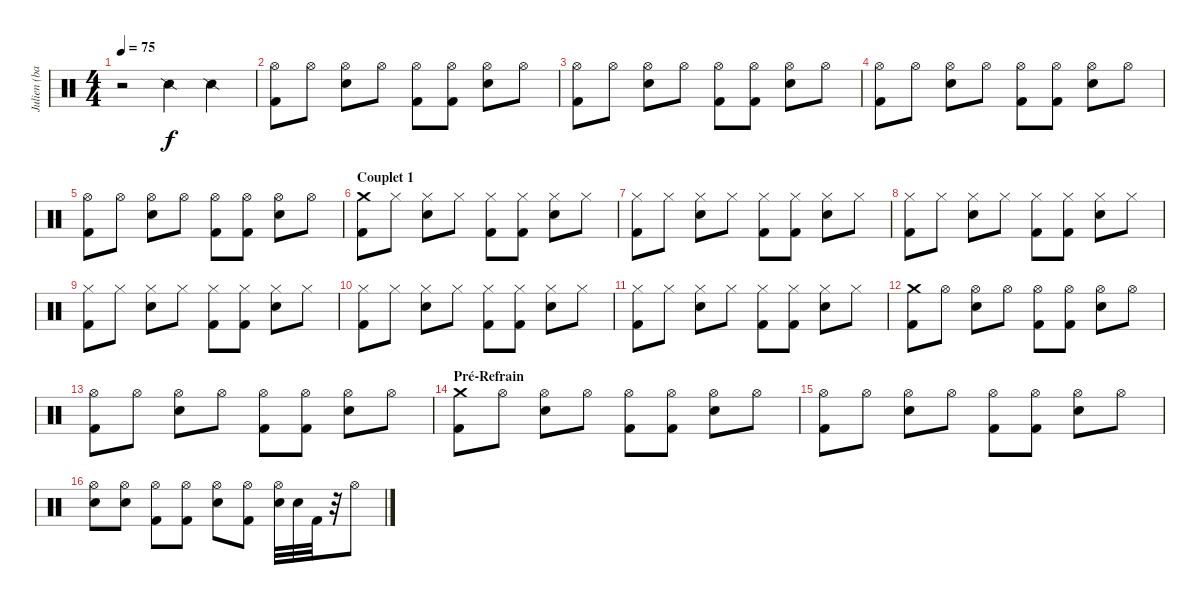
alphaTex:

\track ("Julien (batterie)" "Julien (ba") {instrument percussion}
\staff {score}
\articulation defaults
\ts (4 4)
\tempo 75
\clef neutral
\ks c
r.2{dy f} "Snare (side stick) 2".4 "Snare (side stick) 2".4 |
("Hi-Hat (open)" "Kick (hit) 2").8 "Hi-Hat (open)".8 ("Hi-Hat (open)" "Electric Snare (hit)").8 "Hi-Hat (open)".8 ("Hi-Hat (open)" "Kick (hit) 2").8 ("Hi-Hat (open)" "Kick (hit) 2").8 ("Hi-Hat (open)" "Electric Snare (hit)").8 "Hi-Hat (open)".8 |
("Hi-Hat (open)" "Kick (hit) 2").8 "Hi-Hat (open)".8 ("Hi-Hat (open)" "Electric Snare (hit)").8 "Hi-Hat (open)".8 ("Hi-Hat (open)" "Kick (hit) 2").8 ("Hi-Hat (open)" "Kick (hit) 2").8 ("Hi-Hat (open)" "Electric Snare (hit)").8 "Hi-Hat (open)".8 |
("Hi-Hat (open)" "Kick (hit) 2").8 "Hi-Hat (open)".8 ("Hi-Hat (open)" "Electric Snare (hit)").8 "Hi-Hat (open)".8 ("Hi-Hat (open)" "Kick (hit) 2").8 ("Hi-Hat (open)" "Kick (hit) 2").8 ("Hi-Hat (open)" "Electric Snare (hit)").8 "Hi-Hat (open)".8 |
("Hi-Hat (open)" "Kick (hit) 2").8 "Hi-Hat (open)".8 ("Hi-Hat (open)" "Electric Snare (hit)").8 "Hi-Hat (open)".8 ("Hi-Hat (open)" "Kick (hit) 2").8 ("Hi-Hat (open)" "Kick (hit) 2").8 ("Hi-Hat (open)" "Electric Snare (hit)").8 "Hi-Hat (open)".8 |
\section ("" "Couplet 1")
("Crash medium (hit)" "Kick (hit) 2").8 "Hi-Hat (closed)".8 ("Hi-Hat (closed)" "Electric Snare (hit)").8 "Hi-Hat (closed)".8 ("Hi-Hat (closed)" "Kick (hit) 2").8 ("Hi-Hat (closed)" "Kick (hit) 2").8 ("Hi-Hat (closed)" "Electric Snare (hit)").8 "Hi-Hat (closed)".8 |
("Hi-Hat (closed)" "Kick (hit) 2").8 "Hi-Hat (closed)".8 ("Hi-Hat (closed)" "Electric Snare (hit)").8 "Hi-Hat (closed)".8 ("Hi-Hat (closed)" "Kick (hit) 2").8 ("Hi-Hat (closed)" "Kick (hit) 2").8 ("Hi-Hat (closed)" "Electric Snare (hit)").8 "Hi-Hat (closed)".8 |
("Hi-Hat (closed)" "Kick (hit) 2").8 "Hi-Hat (closed)".8 ("Hi-Hat (closed)" "Electric Snare (hit)").8 "Hi-Hat (closed)".8 ("Hi-Hat (closed)" "Kick (hit) 2").8 ("Hi-Hat (closed)" "Kick (hit) 2").8 ("Hi-Hat (closed)" "Electric Snare (hit)").8 "Hi-Hat (closed)".8 |
("Hi-Hat (closed)" "Kick (hit) 2").8 "Hi-Hat (closed)".8 ("Hi-Hat (closed)" "Electric Snare (hit)").8 "Hi-Hat (closed)".8 ("Hi-Hat (closed)" "Kick (hit) 2").8 ("Hi-Hat (closed)" "Kick (hit) 2").8 ("Hi-Hat (closed)" "Electric Snare (hit)").8 "Hi-Hat (closed)".8 |
("Hi-Hat (closed)" "Kick (hit) 2").8 "Hi-Hat (closed)".8 ("Hi-Hat (closed)" "Electric Snare (hit)").8 "Hi-Hat (closed)".8 ("Hi-Hat (closed)" "Kick (hit) 2").8 ("Hi-Hat (closed)" "Kick (hit) 2").8 ("Hi-Hat (closed)" "Electric Snare (hit)").8 "Hi-Hat (closed)".8 |
("Hi-Hat (closed)" "Kick (hit) 2").8 "Hi-Hat (closed)".8 ("Hi-Hat (closed)" "Electric Snare (hit)").8 "Hi-Hat (closed)".8 ("Hi-Hat (closed)" "Kick (hit) 2").8 ("Hi-Hat (closed)" "Kick (hit) 2").8 ("Hi-Hat (closed)" "Electric Snare (hit)").8 "Hi-Hat (closed)".8 |
("Crash medium (hit)" "Kick (hit) 2").8 "Hi-Hat (open)".8 ("Hi-Hat (open)" "Electric Snare (hit)").8 "Hi-Hat (open)".8 ("Hi-Hat (open)" "Kick (hit) 2").8 ("Hi-Hat (open)" "Kick (hit) 2").8 ("Hi-Hat (open)" "Electric Snare (hit)").8 "Hi-Hat (open)".8 |
("Hi-Hat (open)" "Kick (hit) 2").8 "Hi-Hat (open)".8 ("Hi-Hat (open)" "Electric Snare (hit)").8 "Hi-Hat (open)".8 ("Hi-Hat (open)" "Kick (hit) 2").8 ("Hi-Hat (open)" "Kick (hit) 2").8 ("Hi-Hat (open)" "Electric Snare (hit)").8 "Hi-Hat (open)".8 |
\section ("" "Pré-Refrain")
("Crash medium (hit)" "Kick (hit) 2").8 "Hi-Hat (open)".8 ("Hi-Hat (open)" "Electric Snare (hit)").8 "Hi-Hat (open)".8 ("Hi-Hat (open)" "Kick (hit) 2").8 ("Hi-Hat (open)" "Kick (hit) 2").8 ("Hi-Hat (open)" "Electric Snare (hit)").8 "Hi-Hat (open)".8 |
("Hi-Hat (open)" "Kick (hit) 2").8 "Hi-Hat (open)".8 ("Hi-Hat (open)" "Electric Snare (hit)").8 "Hi-Hat (open)".8 ("Hi-Hat (open)" "Kick (hit) 2").8 ("Hi-Hat (open)" "Kick (hit) 2").8 ("Hi-Hat (open)" "Electric Snare (hit)").8 "Hi-Hat (open)".8 |
("Hi-Hat (open)" "Electric Snare (hit)").8 ("Hi-Hat (open)" "Electric Snare (hit)").8 ("Hi-Hat (open)" "Kick (hit) 2").8 ("Hi-Hat (open)" "Kick (hit) 2").8 ("Hi-Hat (open)" "Electric Snare (hit)").8 ("Hi-Hat (open)" "Kick (hit) 2").8 ("Hi-Hat (open)" "Electric Snare (hit)").32 "Electric Snare (hit)".32 "Kick (hit) 2".32 r.32 "Hi-Hat (open)".8
